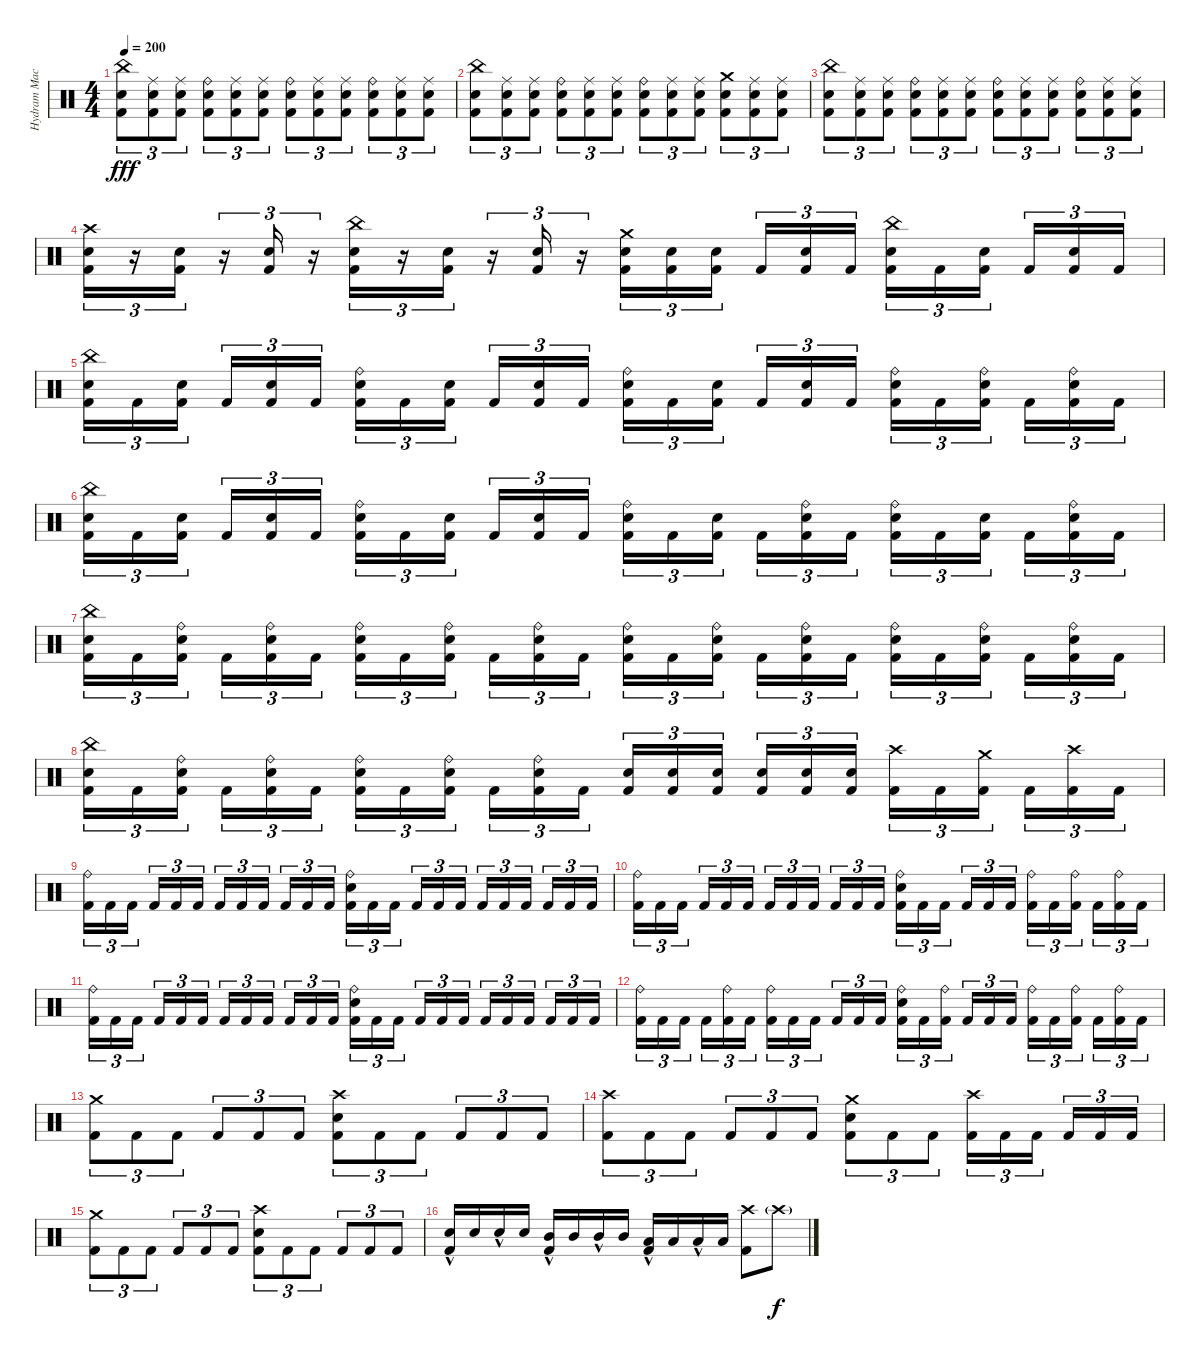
\track ("Hydram Machine" "Hydram Mac") {instrument percussion}
\staff {score}
\articulation defaults
\ts (4 4)
\tempo 200
\clef neutral
\ks c
("China (hit)" "Electric Snare (hit)" "Kick (hit) 2").8{tu (3 2) dy fff} ("Ride (middle)" "Electric Snare (hit)" "Kick (hit) 2").8{tu (3 2)} ("Ride (middle)" "Electric Snare (hit)" "Kick (hit) 2").8{tu (3 2)} ("Ride (bell)" "Electric Snare (hit)" "Kick (hit) 2").8{tu (3 2)} ("Ride (middle)" "Electric Snare (hit)" "Kick (hit) 2").8{tu (3 2)} ("Ride (middle)" "Electric Snare (hit)" "Kick (hit) 2").8{tu (3 2)} ("Ride (bell)" "Electric Snare (hit)" "Kick (hit) 2").8{tu (3 2)} ("Ride (middle)" "Electric Snare (hit)" "Kick (hit) 2").8{tu (3 2)} ("Ride (middle)" "Electric Snare (hit)" "Kick (hit) 2").8{tu (3 2)} ("Ride (bell)" "Electric Snare (hit)" "Kick (hit) 2").8{tu (3 2)} ("Ride (middle)" "Electric Snare (hit)" "Kick (hit) 2").8{tu (3 2)} ("Ride (middle)" "Electric Snare (hit)" "Kick (hit) 2").8{tu (3 2)} |
("China (hit)" "Electric Snare (hit)" "Kick (hit) 2").8{tu (3 2)} ("Ride (middle)" "Electric Snare (hit)" "Kick (hit) 2").8{tu (3 2)} ("Ride (middle)" "Electric Snare (hit)" "Kick (hit) 2").8{tu (3 2)} ("Ride (bell)" "Electric Snare (hit)" "Kick (hit) 2").8{tu (3 2)} ("Ride (middle)" "Electric Snare (hit)" "Kick (hit) 2").8{tu (3 2)} ("Ride (middle)" "Electric Snare (hit)" "Kick (hit) 2").8{tu (3 2)} ("Ride (bell)" "Electric Snare (hit)" "Kick (hit) 2").8{tu (3 2)} ("Ride (middle)" "Electric Snare (hit)" "Kick (hit) 2").8{tu (3 2)} ("Ride (middle)" "Electric Snare (hit)" "Kick (hit) 2").8{tu (3 2)} ("Crash medium (hit)" "Electric Snare (hit)" "Kick (hit) 2").8{tu (3 2)} ("Ride (middle)" "Electric Snare (hit)" "Kick (hit) 2").8{tu (3 2)} ("Ride (middle)" "Electric Snare (hit)" "Kick (hit) 2").8{tu (3 2)} |
("China (hit)" "Electric Snare (hit)" "Kick (hit) 2").8{tu (3 2)} ("Ride (middle)" "Electric Snare (hit)" "Kick (hit) 2").8{tu (3 2)} ("Ride (middle)" "Electric Snare (hit)" "Kick (hit) 2").8{tu (3 2)} ("Ride (bell)" "Electric Snare (hit)" "Kick (hit) 2").8{tu (3 2)} ("Ride (middle)" "Electric Snare (hit)" "Kick (hit) 2").8{tu (3 2)} ("Ride (middle)" "Electric Snare (hit)" "Kick (hit) 2").8{tu (3 2)} ("Ride (bell)" "Electric Snare (hit)" "Kick (hit) 2").8{tu (3 2)} ("Ride (middle)" "Electric Snare (hit)" "Kick (hit) 2").8{tu (3 2)} ("Ride (middle)" "Electric Snare (hit)" "Kick (hit) 2").8{tu (3 2)} ("Ride (bell)" "Electric Snare (hit)" "Kick (hit) 2").8{tu (3 2)} ("Ride (middle)" "Electric Snare (hit)" "Kick (hit) 2").8{tu (3 2)} ("Ride (middle)" "Electric Snare (hit)" "Kick (hit) 2").8{tu (3 2)} |
("Crash high (hit)" "Electric Snare (hit)" "Kick (hit) 2").16{tu (3 2)} r.16{tu (3 2)} ("Electric Snare (hit)" "Kick (hit) 2").16{tu (3 2)} r.16{tu (3 2)} ("Electric Snare (hit)" "Kick (hit) 2").16{tu (3 2)} r.16{tu (3 2)} ("China (hit)" "Electric Snare (hit)" "Kick (hit) 2").16{tu (3 2)} r.16{tu (3 2)} ("Electric Snare (hit)" "Kick (hit) 2").16{tu (3 2)} r.16{tu (3 2)} ("Electric Snare (hit)" "Kick (hit) 2").16{tu (3 2)} r.16{tu (3 2)} ("Crash medium (hit)" "Electric Snare (hit)" "Kick (hit) 2").16{tu (3 2)} ("Electric Snare (hit)" "Kick (hit) 2").16{tu (3 2)} ("Electric Snare (hit)" "Kick (hit) 2").16{tu (3 2) beam splitsecondary} "Kick (hit) 2".16{tu (3 2)} ("Electric Snare (hit)" "Kick (hit) 2").16{tu (3 2)} "Kick (hit) 2".16{tu (3 2)} ("China (hit)" "Electric Snare (hit)" "Kick (hit) 2").16{tu (3 2)} "Kick (hit) 2".16{tu (3 2)} ("Electric Snare (hit)" "Kick (hit) 2").16{tu (3 2) beam splitsecondary} "Kick (hit) 2".16{tu (3 2)} ("Electric Snare (hit)" "Kick (hit) 2").16{tu (3 2)} "Kick (hit) 2".16{tu (3 2)} |
("China (hit)" "Electric Snare (hit)" "Kick (hit) 2").16{tu (3 2)} "Kick (hit) 2".16{tu (3 2)} ("Electric Snare (hit)" "Kick (hit) 2").16{tu (3 2) beam splitsecondary} "Kick (hit) 2".16{tu (3 2)} ("Electric Snare (hit)" "Kick (hit) 2").16{tu (3 2)} "Kick (hit) 2".16{tu (3 2)} ("Ride (bell)" "Electric Snare (hit)" "Kick (hit) 2").16{tu (3 2)} "Kick (hit) 2".16{tu (3 2)} ("Electric Snare (hit)" "Kick (hit) 2").16{tu (3 2) beam splitsecondary} "Kick (hit) 2".16{tu (3 2)} ("Electric Snare (hit)" "Kick (hit) 2").16{tu (3 2)} "Kick (hit) 2".16{tu (3 2)} ("Ride (bell)" "Electric Snare (hit)" "Kick (hit) 2").16{tu (3 2)} "Kick (hit) 2".16{tu (3 2)} ("Electric Snare (hit)" "Kick (hit) 2").16{tu (3 2) beam splitsecondary} "Kick (hit) 2".16{tu (3 2)} ("Electric Snare (hit)" "Kick (hit) 2").16{tu (3 2)} "Kick (hit) 2".16{tu (3 2)} ("Ride (bell)" "Electric Snare (hit)" "Kick (hit) 2").16{tu (3 2)} "Kick (hit) 2".16{tu (3 2)} ("Ride (bell)" "Electric Snare (hit)" "Kick (hit) 2").16{tu (3 2) beam splitsecondary} "Kick (hit) 2".16{tu (3 2)} ("Ride (bell)" "Electric Snare (hit)" "Kick (hit) 2").16{tu (3 2)} "Kick (hit) 2".16{tu (3 2)} |
("China (hit)" "Electric Snare (hit)" "Kick (hit) 2").16{tu (3 2)} "Kick (hit) 2".16{tu (3 2)} ("Electric Snare (hit)" "Kick (hit) 2").16{tu (3 2) beam splitsecondary} "Kick (hit) 2".16{tu (3 2)} ("Electric Snare (hit)" "Kick (hit) 2").16{tu (3 2)} "Kick (hit) 2".16{tu (3 2)} ("Ride (bell)" "Electric Snare (hit)" "Kick (hit) 2").16{tu (3 2)} "Kick (hit) 2".16{tu (3 2)} ("Electric Snare (hit)" "Kick (hit) 2").16{tu (3 2) beam splitsecondary} "Kick (hit) 2".16{tu (3 2)} ("Electric Snare (hit)" "Kick (hit) 2").16{tu (3 2)} "Kick (hit) 2".16{tu (3 2)} ("Ride (bell)" "Electric Snare (hit)" "Kick (hit) 2").16{tu (3 2)} "Kick (hit) 2".16{tu (3 2)} ("Electric Snare (hit)" "Kick (hit) 2").16{tu (3 2) beam splitsecondary} "Kick (hit) 2".16{tu (3 2)} ("Ride (bell)" "Electric Snare (hit)" "Kick (hit) 2").16{tu (3 2)} "Kick (hit) 2".16{tu (3 2)} ("Ride (bell)" "Electric Snare (hit)" "Kick (hit) 2").16{tu (3 2)} "Kick (hit) 2".16{tu (3 2)} ("Electric Snare (hit)" "Kick (hit) 2").16{tu (3 2) beam splitsecondary} "Kick (hit) 2".16{tu (3 2)} ("Ride (bell)" "Electric Snare (hit)" "Kick (hit) 2").16{tu (3 2)} "Kick (hit) 2".16{tu (3 2)} |
("China (hit)" "Electric Snare (hit)" "Kick (hit) 2").16{tu (3 2)} "Kick (hit) 2".16{tu (3 2)} ("Ride (bell)" "Electric Snare (hit)" "Kick (hit) 2").16{tu (3 2) beam splitsecondary} "Kick (hit) 2".16{tu (3 2)} ("Ride (bell)" "Electric Snare (hit)" "Kick (hit) 2").16{tu (3 2)} "Kick (hit) 2".16{tu (3 2)} ("Ride (bell)" "Electric Snare (hit)" "Kick (hit) 2").16{tu (3 2)} "Kick (hit) 2".16{tu (3 2)} ("Ride (bell)" "Electric Snare (hit)" "Kick (hit) 2").16{tu (3 2) beam splitsecondary} "Kick (hit) 2".16{tu (3 2)} ("Ride (bell)" "Electric Snare (hit)" "Kick (hit) 2").16{tu (3 2)} "Kick (hit) 2".16{tu (3 2)} ("Ride (bell)" "Electric Snare (hit)" "Kick (hit) 2").16{tu (3 2)} "Kick (hit) 2".16{tu (3 2)} ("Ride (bell)" "Electric Snare (hit)" "Kick (hit) 2").16{tu (3 2) beam splitsecondary} "Kick (hit) 2".16{tu (3 2)} ("Ride (bell)" "Electric Snare (hit)" "Kick (hit) 2").16{tu (3 2)} "Kick (hit) 2".16{tu (3 2)} ("Ride (bell)" "Electric Snare (hit)" "Kick (hit) 2").16{tu (3 2)} "Kick (hit) 2".16{tu (3 2)} ("Ride (bell)" "Electric Snare (hit)" "Kick (hit) 2").16{tu (3 2) beam splitsecondary} "Kick (hit) 2".16{tu (3 2)} ("Ride (bell)" "Electric Snare (hit)" "Kick (hit) 2").16{tu (3 2)} "Kick (hit) 2".16{tu (3 2)} |
("China (hit)" "Electric Snare (hit)" "Kick (hit) 2").16{tu (3 2)} "Kick (hit) 2".16{tu (3 2)} ("Ride (bell)" "Electric Snare (hit)" "Kick (hit) 2").16{tu (3 2) beam splitsecondary} "Kick (hit) 2".16{tu (3 2)} ("Ride (bell)" "Electric Snare (hit)" "Kick (hit) 2").16{tu (3 2)} "Kick (hit) 2".16{tu (3 2)} ("Ride (bell)" "Electric Snare (hit)" "Kick (hit) 2").16{tu (3 2)} "Kick (hit) 2".16{tu (3 2)} ("Ride (bell)" "Electric Snare (hit)" "Kick (hit) 2").16{tu (3 2) beam splitsecondary} "Kick (hit) 2".16{tu (3 2)} ("Ride (bell)" "Electric Snare (hit)" "Kick (hit) 2").16{tu (3 2)} "Kick (hit) 2".16{tu (3 2)} ("Electric Snare (hit)" "Kick (hit) 2").16{tu (3 2)} ("Electric Snare (hit)" "Kick (hit) 2").16{tu (3 2)} ("Electric Snare (hit)" "Kick (hit) 2").16{tu (3 2) beam splitsecondary} ("Electric Snare (hit)" "Kick (hit) 2").16{tu (3 2)} ("Electric Snare (hit)" "Kick (hit) 2").16{tu (3 2)} ("Electric Snare (hit)" "Kick (hit) 2").16{tu (3 2)} ("Crash high (hit)" "Kick (hit) 2").16{tu (3 2)} "Kick (hit) 2".16{tu (3 2)} ("Crash medium (hit)" "Kick (hit) 2").16{tu (3 2) beam splitsecondary} "Kick (hit) 2".16{tu (3 2)} ("Crash high (hit)" "Kick (hit) 2").16{tu (3 2)} "Kick (hit) 2".16{tu (3 2)} |
("Ride (bell)" "Kick (hit) 2").16{tu (3 2)} "Kick (hit) 2".16{tu (3 2)} "Kick (hit) 2".16{tu (3 2) beam splitsecondary} "Kick (hit) 2".16{tu (3 2)} "Kick (hit) 2".16{tu (3 2)} "Kick (hit) 2".16{tu (3 2)} "Kick (hit) 2".16{tu (3 2)} "Kick (hit) 2".16{tu (3 2)} "Kick (hit) 2".16{tu (3 2) beam splitsecondary} "Kick (hit) 2".16{tu (3 2)} "Kick (hit) 2".16{tu (3 2)} "Kick (hit) 2".16{tu (3 2)} ("Ride (bell)" "Electric Snare (hit)" "Kick (hit) 2").16{tu (3 2)} "Kick (hit) 2".16{tu (3 2)} "Kick (hit) 2".16{tu (3 2) beam splitsecondary} "Kick (hit) 2".16{tu (3 2)} "Kick (hit) 2".16{tu (3 2)} "Kick (hit) 2".16{tu (3 2)} "Kick (hit) 2".16{tu (3 2)} "Kick (hit) 2".16{tu (3 2)} "Kick (hit) 2".16{tu (3 2) beam splitsecondary} "Kick (hit) 2".16{tu (3 2)} "Kick (hit) 2".16{tu (3 2)} "Kick (hit) 2".16{tu (3 2)} |
("Ride (bell)" "Kick (hit) 2").16{tu (3 2)} "Kick (hit) 2".16{tu (3 2)} "Kick (hit) 2".16{tu (3 2) beam splitsecondary} "Kick (hit) 2".16{tu (3 2)} "Kick (hit) 2".16{tu (3 2)} "Kick (hit) 2".16{tu (3 2)} "Kick (hit) 2".16{tu (3 2)} "Kick (hit) 2".16{tu (3 2)} "Kick (hit) 2".16{tu (3 2) beam splitsecondary} "Kick (hit) 2".16{tu (3 2)} "Kick (hit) 2".16{tu (3 2)} "Kick (hit) 2".16{tu (3 2)} ("Ride (bell)" "Electric Snare (hit)" "Kick (hit) 2").16{tu (3 2)} "Kick (hit) 2".16{tu (3 2)} "Kick (hit) 2".16{tu (3 2) beam splitsecondary} "Kick (hit) 2".16{tu (3 2)} "Kick (hit) 2".16{tu (3 2)} "Kick (hit) 2".16{tu (3 2)} ("Ride (bell)" "Kick (hit) 2").16{tu (3 2)} "Kick (hit) 2".16{tu (3 2)} ("Ride (bell)" "Kick (hit) 2").16{tu (3 2) beam splitsecondary} "Kick (hit) 2".16{tu (3 2)} ("Ride (bell)" "Kick (hit) 2").16{tu (3 2)} "Kick (hit) 2".16{tu (3 2)} |
("Ride (bell)" "Kick (hit) 2").16{tu (3 2)} "Kick (hit) 2".16{tu (3 2)} "Kick (hit) 2".16{tu (3 2) beam splitsecondary} "Kick (hit) 2".16{tu (3 2)} "Kick (hit) 2".16{tu (3 2)} "Kick (hit) 2".16{tu (3 2)} "Kick (hit) 2".16{tu (3 2)} "Kick (hit) 2".16{tu (3 2)} "Kick (hit) 2".16{tu (3 2) beam splitsecondary} "Kick (hit) 2".16{tu (3 2)} "Kick (hit) 2".16{tu (3 2)} "Kick (hit) 2".16{tu (3 2)} ("Ride (bell)" "Electric Snare (hit)" "Kick (hit) 2").16{tu (3 2)} "Kick (hit) 2".16{tu (3 2)} "Kick (hit) 2".16{tu (3 2) beam splitsecondary} "Kick (hit) 2".16{tu (3 2)} "Kick (hit) 2".16{tu (3 2)} "Kick (hit) 2".16{tu (3 2)} "Kick (hit) 2".16{tu (3 2)} "Kick (hit) 2".16{tu (3 2)} "Kick (hit) 2".16{tu (3 2) beam splitsecondary} "Kick (hit) 2".16{tu (3 2)} "Kick (hit) 2".16{tu (3 2)} "Kick (hit) 2".16{tu (3 2)} |
("Ride (bell)" "Kick (hit) 2").16{tu (3 2)} "Kick (hit) 2".16{tu (3 2)} "Kick (hit) 2".16{tu (3 2) beam splitsecondary} "Kick (hit) 2".16{tu (3 2)} ("Ride (bell)" "Kick (hit) 2").16{tu (3 2)} "Kick (hit) 2".16{tu (3 2)} ("Ride (bell)" "Kick (hit) 2").16{tu (3 2)} "Kick (hit) 2".16{tu (3 2)} "Kick (hit) 2".16{tu (3 2) beam splitsecondary} "Kick (hit) 2".16{tu (3 2)} "Kick (hit) 2".16{tu (3 2)} "Kick (hit) 2".16{tu (3 2)} ("Ride (bell)" "Electric Snare (hit)" "Kick (hit) 2").16{tu (3 2)} "Kick (hit) 2".16{tu (3 2)} ("Ride (bell)" "Kick (hit) 2").16{tu (3 2) beam splitsecondary} "Kick (hit) 2".16{tu (3 2)} "Kick (hit) 2".16{tu (3 2)} "Kick (hit) 2".16{tu (3 2)} ("Ride (bell)" "Kick (hit) 2").16{tu (3 2)} "Kick (hit) 2".16{tu (3 2)} ("Ride (bell)" "Kick (hit) 2").16{tu (3 2) beam splitsecondary} "Kick (hit) 2".16{tu (3 2)} ("Ride (bell)" "Kick (hit) 2").16{tu (3 2)} "Kick (hit) 2".16{tu (3 2)} |
("Crash medium (hit)" "Kick (hit) 2").8{tu (3 2)} "Kick (hit) 2".8{tu (3 2)} "Kick (hit) 2".8{tu (3 2)} "Kick (hit) 2".8{tu (3 2)} "Kick (hit) 2".8{tu (3 2)} "Kick (hit) 2".8{tu (3 2)} ("Crash high (hit)" "Electric Snare (hit)" "Kick (hit) 2").8{tu (3 2)} "Kick (hit) 2".8{tu (3 2)} "Kick (hit) 2".8{tu (3 2)} "Kick (hit) 2".8{tu (3 2)} "Kick (hit) 2".8{tu (3 2)} "Kick (hit) 2".8{tu (3 2)} |
("Crash high (hit)" "Kick (hit) 2").8{tu (3 2)} "Kick (hit) 2".8{tu (3 2)} "Kick (hit) 2".8{tu (3 2)} "Kick (hit) 2".8{tu (3 2)} "Kick (hit) 2".8{tu (3 2)} "Kick (hit) 2".8{tu (3 2)} ("Crash medium (hit)" "Electric Snare (hit)" "Kick (hit) 2").8{tu (3 2)} "Kick (hit) 2".8{tu (3 2)} "Kick (hit) 2".8{tu (3 2)} ("Crash high (hit)" "Kick (hit) 2").16{tu (3 2)} "Kick (hit) 2".16{tu (3 2)} "Kick (hit) 2".16{tu (3 2) beam splitsecondary} "Kick (hit) 2".16{tu (3 2)} "Kick (hit) 2".16{tu (3 2)} "Kick (hit) 2".16{tu (3 2)} |
("Crash medium (hit)" "Kick (hit) 2").8{tu (3 2)} "Kick (hit) 2".8{tu (3 2)} "Kick (hit) 2".8{tu (3 2)} "Kick (hit) 2".8{tu (3 2)} "Kick (hit) 2".8{tu (3 2)} "Kick (hit) 2".8{tu (3 2)} ("Crash high (hit)" "Electric Snare (hit)" "Kick (hit) 2").8{tu (3 2)} "Kick (hit) 2".8{tu (3 2)} "Kick (hit) 2".8{tu (3 2)} "Kick (hit) 2".8{tu (3 2)} "Kick (hit) 2".8{tu (3 2)} "Kick (hit) 2".8{tu (3 2)} |
("Electric Snare (hit)"{hac} "Kick (hit) 2").16 "Electric Snare (hit)".16 "Electric Snare (hit)"{hac}.16 "Electric Snare (hit)".16 ("Mid Tom (hit)"{hac} "Kick (hit) 2").16 "Mid Tom (hit)".16 "Mid Tom (hit)"{hac}.16 "Mid Tom (hit)".16 ("Low Tom (hit)"{hac} "Kick (hit) 2").16 "Low Tom (hit)".16 "Low Tom (hit)"{hac}.16 "Low Tom (hit)".16 ("Crash high (hit)" "Kick (hit) 2").8 "Crash high (hit)"{g}.8{dy f}
